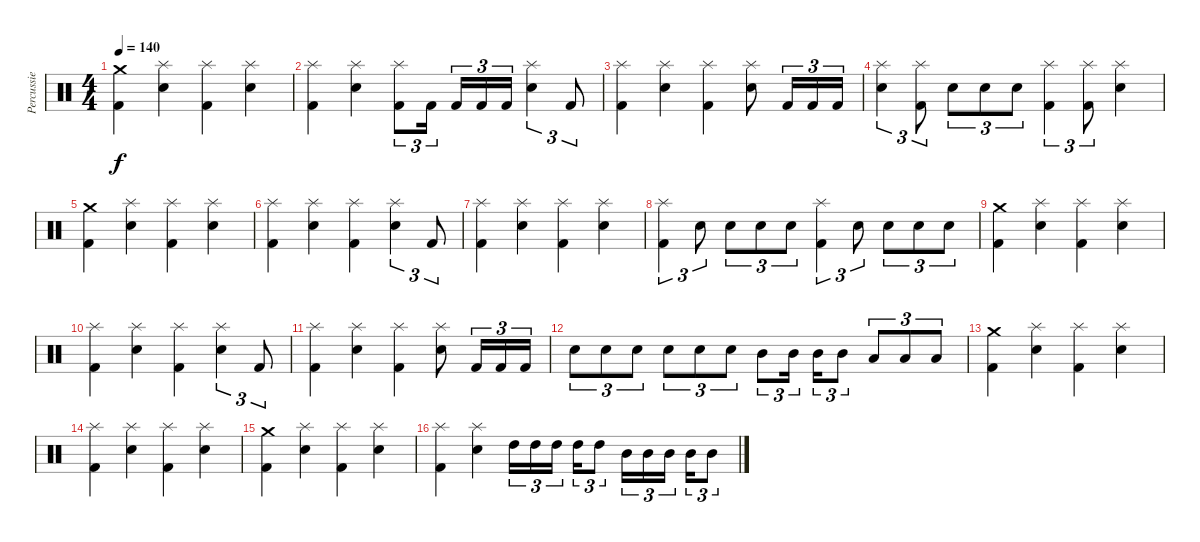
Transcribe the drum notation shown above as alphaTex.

\track ("Percussie" "Percussie") {instrument percussion}
\staff {score}
\articulation defaults
\ts (4 4)
\tempo 140
\clef neutral
\ks c
("Crash medium (hit)" "Kick (hit) 2").4{dy f} ("Splash (hit)" "Electric Snare (hit)").4 ("Splash (hit)" "Kick (hit) 2").4 ("Splash (hit)" "Electric Snare (hit)").4 |
("Splash (hit)" "Kick (hit) 2").4 ("Splash (hit)" "Electric Snare (hit)").4 ("Splash (hit)" "Kick (hit) 2").8{tu (3 2)} "Kick (hit) 2".16{tu (3 2)} "Kick (hit) 2".16{tu (3 2)} "Kick (hit) 2".16{tu (3 2)} "Kick (hit) 2".16{tu (3 2)} ("Splash (hit)" "Electric Snare (hit)").4{tu (3 2)} "Kick (hit) 2".8{tu (3 2)} |
("Splash (hit)" "Kick (hit) 2").4 ("Splash (hit)" "Electric Snare (hit)").4 ("Splash (hit)" "Kick (hit) 2").4 ("Splash (hit)" "Electric Snare (hit)").8 "Kick (hit) 2".16{tu (3 2)} "Kick (hit) 2".16{tu (3 2)} "Kick (hit) 2".16{tu (3 2)} |
("Splash (hit)" "Electric Snare (hit)").4{tu (3 2)} ("Splash (hit)" "Kick (hit) 2").8{tu (3 2)} "Electric Snare (hit)".8{tu (3 2)} "Electric Snare (hit)".8{tu (3 2)} "Electric Snare (hit)".8{tu (3 2)} ("Splash (hit)" "Kick (hit) 2").4{tu (3 2)} ("Splash (hit)" "Kick (hit) 2").8{tu (3 2)} ("Splash (hit)" "Electric Snare (hit)").4 |
("Crash medium (hit)" "Kick (hit) 2").4 ("Splash (hit)" "Electric Snare (hit)").4 ("Splash (hit)" "Kick (hit) 2").4 ("Splash (hit)" "Electric Snare (hit)").4 |
("Splash (hit)" "Kick (hit) 2").4 ("Splash (hit)" "Electric Snare (hit)").4 ("Splash (hit)" "Kick (hit) 2").4 ("Splash (hit)" "Electric Snare (hit)").4{tu (3 2)} "Kick (hit) 2".8{tu (3 2)} |
("Splash (hit)" "Kick (hit) 2").4 ("Splash (hit)" "Electric Snare (hit)").4 ("Splash (hit)" "Kick (hit) 2").4 ("Splash (hit)" "Electric Snare (hit)").4 |
("Splash (hit)" "Kick (hit) 2").4{tu (3 2)} "Electric Snare (hit)".8{tu (3 2)} "Electric Snare (hit)".8{tu (3 2)} "Electric Snare (hit)".8{tu (3 2)} "Electric Snare (hit)".8{tu (3 2)} ("Splash (hit)" "Kick (hit) 2").4{tu (3 2)} "Electric Snare (hit)".8{tu (3 2)} "Electric Snare (hit)".8{tu (3 2)} "Electric Snare (hit)".8{tu (3 2)} "Electric Snare (hit)".8{tu (3 2)} |
("Crash medium (hit)" "Kick (hit) 2").4 ("Splash (hit)" "Electric Snare (hit)").4 ("Splash (hit)" "Kick (hit) 2").4 ("Splash (hit)" "Electric Snare (hit)").4 |
("Splash (hit)" "Kick (hit) 2").4 ("Splash (hit)" "Electric Snare (hit)").4 ("Splash (hit)" "Kick (hit) 2").4 ("Splash (hit)" "Electric Snare (hit)").4{tu (3 2)} "Kick (hit) 2".8{tu (3 2)} |
("Splash (hit)" "Kick (hit) 2").4 ("Splash (hit)" "Electric Snare (hit)").4 ("Splash (hit)" "Kick (hit) 2").4 ("Splash (hit)" "Electric Snare (hit)").8 "Kick (hit) 2".16{tu (3 2)} "Kick (hit) 2".16{tu (3 2)} "Kick (hit) 2".16{tu (3 2)} |
"Electric Snare (hit)".8{tu (3 2)} "Electric Snare (hit)".8{tu (3 2)} "Electric Snare (hit)".8{tu (3 2)} "Electric Snare (hit)".8{tu (3 2)} "Electric Snare (hit)".8{tu (3 2)} "Electric Snare (hit)".8{tu (3 2)} "Mid Tom (hit)".8{tu (3 2)} "Mid Tom (hit)".16{tu (3 2)} "Mid Tom (hit)".16{tu (3 2)} "Mid Tom (hit)".8{tu (3 2)} "Low Tom (hit)".8{tu (3 2)} "Low Tom (hit)".8{tu (3 2)} "Low Tom (hit)".8{tu (3 2)} |
("Crash medium (hit)" "Kick (hit) 2").4 ("Splash (hit)" "Electric Snare (hit)").4 ("Splash (hit)" "Kick (hit) 2").4 ("Splash (hit)" "Electric Snare (hit)").4 |
("Splash (hit)" "Kick (hit) 2").4 ("Splash (hit)" "Electric Snare (hit)").4 ("Splash (hit)" "Kick (hit) 2").4 ("Splash (hit)" "Electric Snare (hit)").4 |
("Crash medium (hit)" "Kick (hit) 2").4 ("Splash (hit)" "Electric Snare (hit)").4 ("Splash (hit)" "Kick (hit) 2").4 ("Splash (hit)" "Electric Snare (hit)").4 |
("Splash (hit)" "Kick (hit) 2").4 ("Splash (hit)" "Electric Snare (hit)").4 "High Tom (hit)".16{tu (3 2)} "High Tom (hit)".16{tu (3 2)} "High Tom (hit)".16{tu (3 2)} "High Tom (hit)".16{tu (3 2)} "High Tom (hit)".8{tu (3 2)} "Mid Tom (hit)".16{tu (3 2)} "Mid Tom (hit)".16{tu (3 2)} "Mid Tom (hit)".16{tu (3 2)} "Mid Tom (hit)".16{tu (3 2)} "Mid Tom (hit)".8{tu (3 2)}
